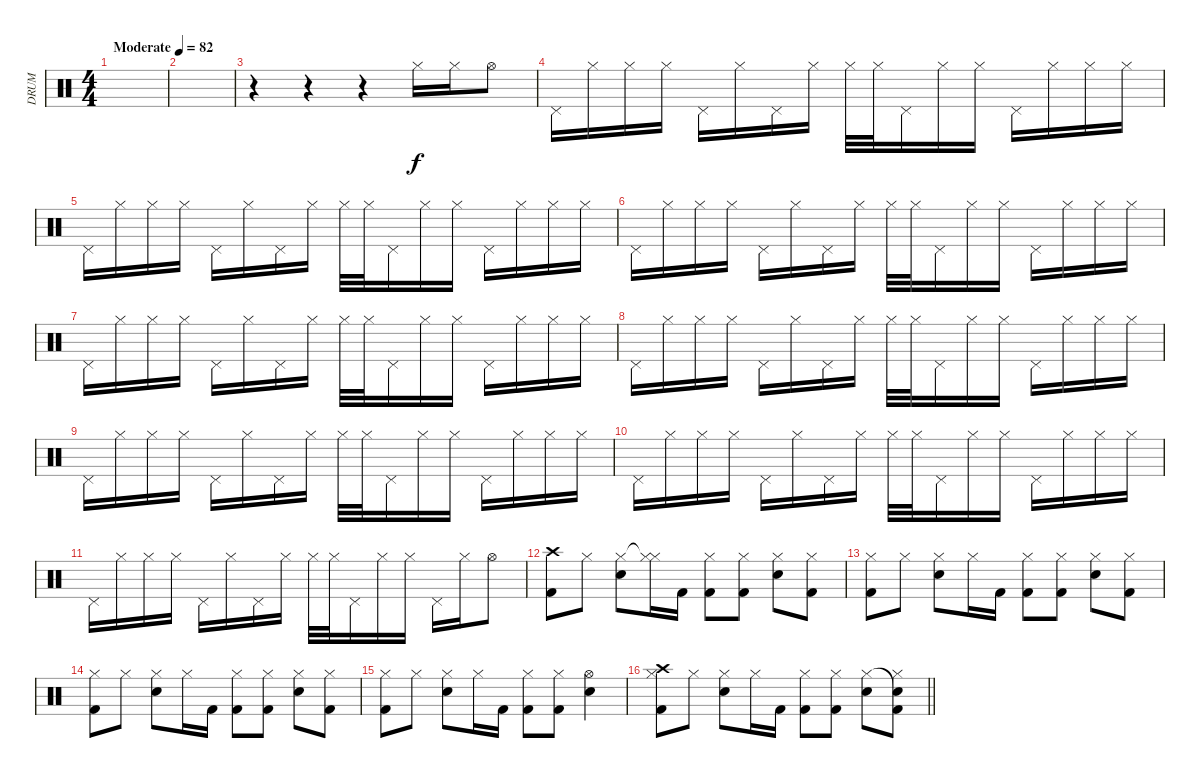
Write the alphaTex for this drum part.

\track ("DRUM" "DRUM") {instrument percussion}
\staff {score}
\articulation defaults
\ts (4 4)
\tempo (82 "Moderate")
\clef neutral
\ks c
|
|
r.4 r.4 r.4 "Hi-Hat (closed)".16 "Hi-Hat (closed)".16 "Hi-Hat (open)".8 |
"Pedal Hi-Hat (hit)".16 "Hi-Hat (closed)".16 "Hi-Hat (closed)".16 "Hi-Hat (closed)".16 "Pedal Hi-Hat (hit)".16 "Hi-Hat (closed)".16 "Pedal Hi-Hat (hit)".16 "Hi-Hat (closed)".16 "Hi-Hat (closed)".32 "Hi-Hat (closed)".32 "Pedal Hi-Hat (hit)".16 "Hi-Hat (closed)".16 "Hi-Hat (closed)".16 "Pedal Hi-Hat (hit)".16 "Hi-Hat (closed)".16 "Hi-Hat (closed)".16 "Hi-Hat (closed)".16 |
"Pedal Hi-Hat (hit)".16 "Hi-Hat (closed)".16 "Hi-Hat (closed)".16 "Hi-Hat (closed)".16 "Pedal Hi-Hat (hit)".16 "Hi-Hat (closed)".16 "Pedal Hi-Hat (hit)".16 "Hi-Hat (closed)".16 "Hi-Hat (closed)".32 "Hi-Hat (closed)".32 "Pedal Hi-Hat (hit)".16 "Hi-Hat (closed)".16 "Hi-Hat (closed)".16 "Pedal Hi-Hat (hit)".16 "Hi-Hat (closed)".16 "Hi-Hat (closed)".16 "Hi-Hat (closed)".16 |
"Pedal Hi-Hat (hit)".16 "Hi-Hat (closed)".16 "Hi-Hat (closed)".16 "Hi-Hat (closed)".16 "Pedal Hi-Hat (hit)".16 "Hi-Hat (closed)".16 "Pedal Hi-Hat (hit)".16 "Hi-Hat (closed)".16 "Hi-Hat (closed)".32 "Hi-Hat (closed)".32 "Pedal Hi-Hat (hit)".16 "Hi-Hat (closed)".16 "Hi-Hat (closed)".16 "Pedal Hi-Hat (hit)".16 "Hi-Hat (closed)".16 "Hi-Hat (closed)".16 "Hi-Hat (closed)".16 |
"Pedal Hi-Hat (hit)".16 "Hi-Hat (closed)".16 "Hi-Hat (closed)".16 "Hi-Hat (closed)".16 "Pedal Hi-Hat (hit)".16 "Hi-Hat (closed)".16 "Pedal Hi-Hat (hit)".16 "Hi-Hat (closed)".16 "Hi-Hat (closed)".32 "Hi-Hat (closed)".32 "Pedal Hi-Hat (hit)".16 "Hi-Hat (closed)".16 "Hi-Hat (closed)".16 "Pedal Hi-Hat (hit)".16 "Hi-Hat (closed)".16 "Hi-Hat (closed)".16 "Hi-Hat (closed)".16 |
"Pedal Hi-Hat (hit)".16 "Hi-Hat (closed)".16 "Hi-Hat (closed)".16 "Hi-Hat (closed)".16 "Pedal Hi-Hat (hit)".16 "Hi-Hat (closed)".16 "Pedal Hi-Hat (hit)".16 "Hi-Hat (closed)".16 "Hi-Hat (closed)".32 "Hi-Hat (closed)".32 "Pedal Hi-Hat (hit)".16 "Hi-Hat (closed)".16 "Hi-Hat (closed)".16 "Pedal Hi-Hat (hit)".16 "Hi-Hat (closed)".16 "Hi-Hat (closed)".16 "Hi-Hat (closed)".16 |
"Pedal Hi-Hat (hit)".16 "Hi-Hat (closed)".16 "Hi-Hat (closed)".16 "Hi-Hat (closed)".16 "Pedal Hi-Hat (hit)".16 "Hi-Hat (closed)".16 "Pedal Hi-Hat (hit)".16 "Hi-Hat (closed)".16 "Hi-Hat (closed)".32 "Hi-Hat (closed)".32 "Pedal Hi-Hat (hit)".16 "Hi-Hat (closed)".16 "Hi-Hat (closed)".16 "Pedal Hi-Hat (hit)".16 "Hi-Hat (closed)".16 "Hi-Hat (closed)".16 "Hi-Hat (closed)".16 |
"Pedal Hi-Hat (hit)".16 "Hi-Hat (closed)".16 "Hi-Hat (closed)".16 "Hi-Hat (closed)".16 "Pedal Hi-Hat (hit)".16 "Hi-Hat (closed)".16 "Pedal Hi-Hat (hit)".16 "Hi-Hat (closed)".16 "Hi-Hat (closed)".32 "Hi-Hat (closed)".32 "Pedal Hi-Hat (hit)".16 "Hi-Hat (closed)".16 "Hi-Hat (closed)".16 "Pedal Hi-Hat (hit)".16 "Hi-Hat (closed)".16 "Hi-Hat (closed)".16 "Hi-Hat (closed)".16 |
"Pedal Hi-Hat (hit)".16 "Hi-Hat (closed)".16 "Hi-Hat (closed)".16 "Hi-Hat (closed)".16 "Pedal Hi-Hat (hit)".16 "Hi-Hat (closed)".16 "Pedal Hi-Hat (hit)".16 "Hi-Hat (closed)".16 "Hi-Hat (closed)".32 "Hi-Hat (closed)".32 "Pedal Hi-Hat (hit)".16 "Hi-Hat (closed)".16 "Hi-Hat (closed)".16 "Pedal Hi-Hat (hit)".16 "Hi-Hat (closed)".16 "Hi-Hat (open)".8 |
("Crash high (hit)" "Kick (hit) 2").8 "Hi-Hat (closed)".8 ("Hi-Hat (closed)" "Electric Snare (hit)").8 ("Hi-Hat (closed)"{t} "Hi-Hat (closed)").16 "Kick (hit) 2".16 ("Hi-Hat (closed)" "Kick (hit) 2").8 ("Hi-Hat (closed)" "Kick (hit) 2").8 ("Hi-Hat (closed)" "Electric Snare (hit)").8 ("Hi-Hat (closed)" "Kick (hit) 2").8 |
("Hi-Hat (closed)" "Kick (hit) 2").8 "Hi-Hat (closed)".8 ("Hi-Hat (closed)" "Electric Snare (hit)").8 "Hi-Hat (closed)".16 "Kick (hit) 2".16 ("Hi-Hat (closed)" "Kick (hit) 2").8 ("Hi-Hat (closed)" "Kick (hit) 2").8 ("Hi-Hat (closed)" "Electric Snare (hit)").8 ("Hi-Hat (closed)" "Kick (hit) 2").8 |
("Hi-Hat (closed)" "Kick (hit) 2").8 "Hi-Hat (closed)".8 ("Hi-Hat (closed)" "Electric Snare (hit)").8 "Hi-Hat (closed)".16 "Kick (hit) 2".16 ("Hi-Hat (closed)" "Kick (hit) 2").8 ("Hi-Hat (closed)" "Kick (hit) 2").8 ("Hi-Hat (closed)" "Electric Snare (hit)").8 ("Hi-Hat (closed)" "Kick (hit) 2").8 |
("Hi-Hat (closed)" "Kick (hit) 2").8 "Hi-Hat (closed)".8 ("Hi-Hat (closed)" "Electric Snare (hit)").8 "Hi-Hat (closed)".16 "Kick (hit) 2".16 ("Hi-Hat (closed)" "Kick (hit) 2").8 ("Hi-Hat (closed)" "Kick (hit) 2").8 ("Hi-Hat (open)" "Electric Snare (hit)").4 |
\barLineRight lightlight
("Crash high (hit)" "Hi-Hat (closed)" "Kick (hit) 2").8 "Hi-Hat (closed)".8 ("Hi-Hat (closed)" "Electric Snare (hit)").8 "Hi-Hat (closed)".16 "Kick (hit) 2".16 ("Hi-Hat (closed)" "Kick (hit) 2").8 ("Hi-Hat (closed)" "Kick (hit) 2").8 ("Hi-Hat (closed)" "Electric Snare (hit)").8 ("Snare (hit)"{t} "Hi-Hat (closed)" "Kick (hit) 2").8
